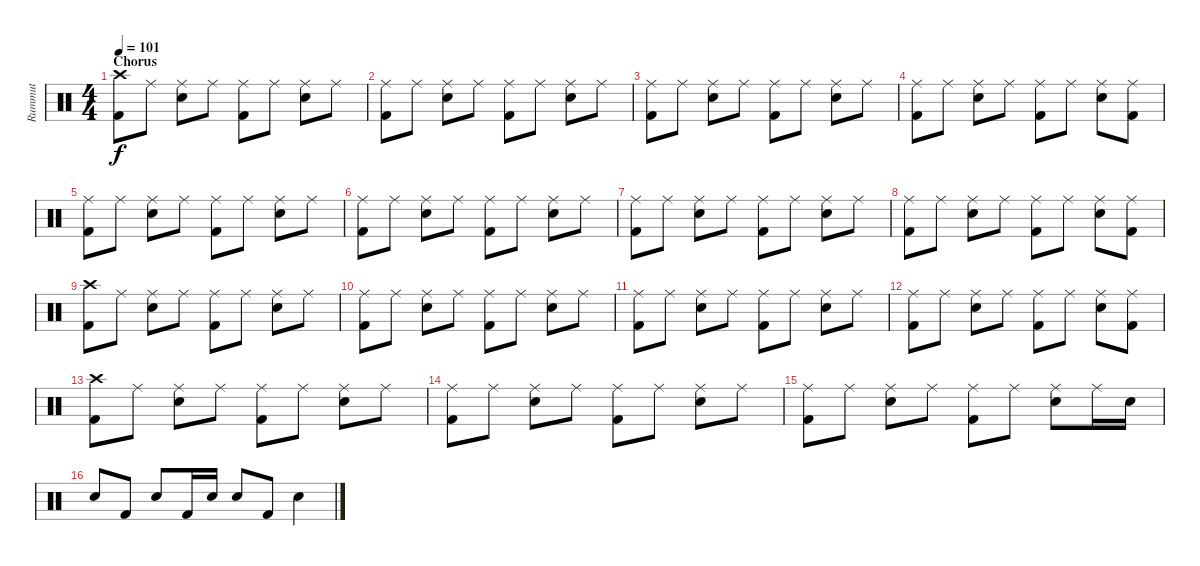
\track ("Rummut" "Rummut") {instrument percussion}
\staff {score}
\articulation defaults
\ts (4 4)
\section ("" "Chorus")
\tempo 101
\clef neutral
\ks c
("Crash high (hit)" "Kick (hit) 2").8{dy f} "Ride (middle)".8 ("Ride (middle)" "Electric Snare (hit)").8 "Ride (middle)".8 ("Ride (middle)" "Kick (hit) 2").8 "Ride (middle)".8 ("Ride (middle)" "Electric Snare (hit)").8 "Ride (middle)".8 |
("Ride (middle)" "Kick (hit) 2").8 "Ride (middle)".8 ("Ride (middle)" "Electric Snare (hit)").8 "Ride (middle)".8 ("Ride (middle)" "Kick (hit) 2").8 "Ride (middle)".8 ("Ride (middle)" "Electric Snare (hit)").8 "Ride (middle)".8 |
("Ride (middle)" "Kick (hit) 2").8 "Ride (middle)".8 ("Ride (middle)" "Electric Snare (hit)").8 "Ride (middle)".8 ("Ride (middle)" "Kick (hit) 2").8 "Ride (middle)".8 ("Ride (middle)" "Electric Snare (hit)").8 "Ride (middle)".8 |
("Ride (middle)" "Kick (hit) 2").8 "Ride (middle)".8 ("Ride (middle)" "Electric Snare (hit)").8 "Ride (middle)".8 ("Ride (middle)" "Kick (hit) 2").8 "Ride (middle)".8 ("Ride (middle)" "Electric Snare (hit)").8 ("Ride (middle)" "Kick (hit) 2").8 |
("Ride (middle)" "Kick (hit) 2").8 "Ride (middle)".8 ("Ride (middle)" "Electric Snare (hit)").8 "Ride (middle)".8 ("Ride (middle)" "Kick (hit) 2").8 "Ride (middle)".8 ("Ride (middle)" "Electric Snare (hit)").8 "Ride (middle)".8 |
("Ride (middle)" "Kick (hit) 2").8 "Ride (middle)".8 ("Ride (middle)" "Electric Snare (hit)").8 "Ride (middle)".8 ("Ride (middle)" "Kick (hit) 2").8 "Ride (middle)".8 ("Ride (middle)" "Electric Snare (hit)").8 "Ride (middle)".8 |
("Ride (middle)" "Kick (hit) 2").8 "Ride (middle)".8 ("Ride (middle)" "Electric Snare (hit)").8 "Ride (middle)".8 ("Ride (middle)" "Kick (hit) 2").8 "Ride (middle)".8 ("Ride (middle)" "Electric Snare (hit)").8 "Ride (middle)".8 |
("Ride (middle)" "Kick (hit) 2").8 "Ride (middle)".8 ("Ride (middle)" "Electric Snare (hit)").8 "Ride (middle)".8 ("Ride (middle)" "Kick (hit) 2").8 "Ride (middle)".8 ("Ride (middle)" "Electric Snare (hit)").8 ("Ride (middle)" "Kick (hit) 2").8 |
("Crash high (hit)" "Kick (hit) 2").8 "Ride (middle)".8 ("Ride (middle)" "Electric Snare (hit)").8 "Ride (middle)".8 ("Ride (middle)" "Kick (hit) 2").8 "Ride (middle)".8 ("Ride (middle)" "Electric Snare (hit)").8 "Ride (middle)".8 |
("Ride (middle)" "Kick (hit) 2").8 "Ride (middle)".8 ("Ride (middle)" "Electric Snare (hit)").8 "Ride (middle)".8 ("Ride (middle)" "Kick (hit) 2").8 "Ride (middle)".8 ("Ride (middle)" "Electric Snare (hit)").8 "Ride (middle)".8 |
("Ride (middle)" "Kick (hit) 2").8 "Ride (middle)".8 ("Ride (middle)" "Electric Snare (hit)").8 "Ride (middle)".8 ("Ride (middle)" "Kick (hit) 2").8 "Ride (middle)".8 ("Ride (middle)" "Electric Snare (hit)").8 "Ride (middle)".8 |
("Ride (middle)" "Kick (hit) 2").8 "Ride (middle)".8 ("Ride (middle)" "Electric Snare (hit)").8 "Ride (middle)".8 ("Ride (middle)" "Kick (hit) 2").8 "Ride (middle)".8 ("Ride (middle)" "Electric Snare (hit)").8 ("Ride (middle)" "Kick (hit) 2").8 |
("Crash high (hit)" "Kick (hit) 2").8 "Ride (middle)".8 ("Ride (middle)" "Electric Snare (hit)").8 "Ride (middle)".8 ("Ride (middle)" "Kick (hit) 2").8 "Ride (middle)".8 ("Ride (middle)" "Electric Snare (hit)").8 "Ride (middle)".8 |
("Ride (middle)" "Kick (hit) 2").8 "Ride (middle)".8 ("Ride (middle)" "Electric Snare (hit)").8 "Ride (middle)".8 ("Ride (middle)" "Kick (hit) 2").8 "Ride (middle)".8 ("Ride (middle)" "Electric Snare (hit)").8 "Ride (middle)".8 |
("Ride (middle)" "Kick (hit) 2").8 "Ride (middle)".8 ("Ride (middle)" "Electric Snare (hit)").8 "Ride (middle)".8 ("Ride (middle)" "Kick (hit) 2").8 "Ride (middle)".8 ("Ride (middle)" "Electric Snare (hit)").8 "Ride (middle)".16 "Electric Snare (hit)".16 |
"Electric Snare (hit)".8 "Kick (hit) 2".8 "Electric Snare (hit)".8 "Kick (hit) 2".16 "Electric Snare (hit)".16 "Electric Snare (hit)".8 "Kick (hit) 2".8 "Electric Snare (hit)".4
